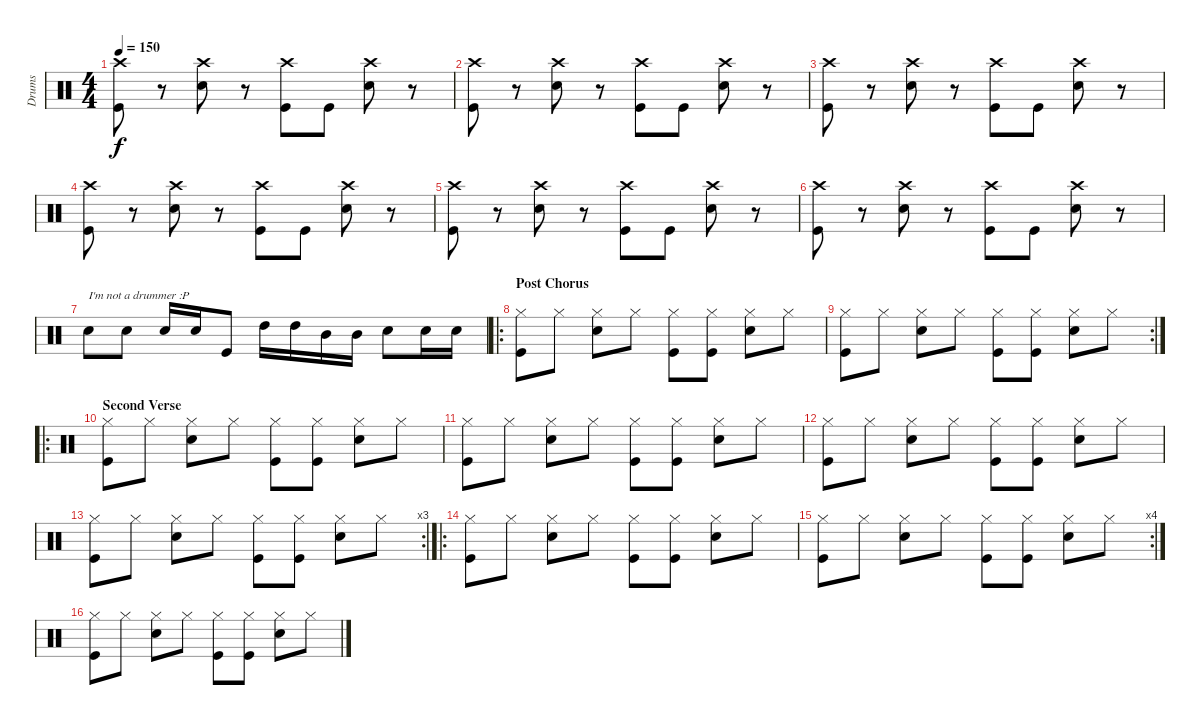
\track ("Drums" "Drums") {instrument percussion}
\staff {score}
\articulation defaults
\ts (4 4)
\tempo 150
\clef neutral
\ks c
("Crash high (hit)" "Kick (hit)").8{dy f} r.8 ("Crash high (hit)" "Snare (hit) 2").8 r.8 ("Crash high (hit)" "Kick (hit)").8 "Kick (hit)".8 ("Crash high (hit)" "Snare (hit) 2").8 r.8 |
("Crash high (hit)" "Kick (hit)").8 r.8 ("Crash high (hit)" "Snare (hit) 2").8 r.8 ("Crash high (hit)" "Kick (hit)").8 "Kick (hit)".8 ("Crash high (hit)" "Snare (hit) 2").8 r.8 |
("Crash high (hit)" "Kick (hit)").8 r.8 ("Crash high (hit)" "Snare (hit) 2").8 r.8 ("Crash high (hit)" "Kick (hit)").8 "Kick (hit)".8 ("Crash high (hit)" "Snare (hit) 2").8 r.8 |
("Crash high (hit)" "Kick (hit)").8 r.8 ("Crash high (hit)" "Snare (hit) 2").8 r.8 ("Crash high (hit)" "Kick (hit)").8 "Kick (hit)".8 ("Crash high (hit)" "Snare (hit) 2").8 r.8 |
("Crash high (hit)" "Kick (hit)").8 r.8 ("Crash high (hit)" "Snare (hit) 2").8 r.8 ("Crash high (hit)" "Kick (hit)").8 "Kick (hit)".8 ("Crash high (hit)" "Snare (hit) 2").8 r.8 |
("Crash high (hit)" "Kick (hit)").8 r.8 ("Crash high (hit)" "Snare (hit) 2").8 r.8 ("Crash high (hit)" "Kick (hit)").8 "Kick (hit)".8 ("Crash high (hit)" "Snare (hit) 2").8 r.8 |
"Snare (hit) 2".8{txt "I'm not a drummer :P"} "Snare (hit) 2".8 "Snare (hit) 2".16 "Snare (hit) 2".16 "Kick (hit)".8 "High Tom (hit)".16 "High Tom (hit)".16 "Mid Tom (hit)".16 "Mid Tom (hit)".16 "Snare (hit) 2".8 "Snare (hit) 2".16 "Snare (hit) 2".16 |
\ro
\section ("" "Post Chorus")
("Hi-Hat (closed)" "Kick (hit)").8 "Hi-Hat (closed)".8 ("Hi-Hat (closed)" "Snare (hit) 2").8 "Hi-Hat (closed)".8 ("Hi-Hat (closed)" "Kick (hit)").8 ("Hi-Hat (closed)" "Kick (hit)").8 ("Hi-Hat (closed)" "Snare (hit) 2").8 "Hi-Hat (closed)".8 |
\rc 2
("Hi-Hat (closed)" "Kick (hit)").8 "Hi-Hat (closed)".8 ("Hi-Hat (closed)" "Snare (hit) 2").8 "Hi-Hat (closed)".8 ("Hi-Hat (closed)" "Kick (hit)").8 ("Hi-Hat (closed)" "Kick (hit)").8 ("Hi-Hat (closed)" "Snare (hit) 2").8 "Hi-Hat (closed)".8 |
\ro
\section ("" "Second Verse")
("Hi-Hat (closed)" "Kick (hit)").8 "Hi-Hat (closed)".8 ("Hi-Hat (closed)" "Snare (hit) 2").8 "Hi-Hat (closed)".8 ("Hi-Hat (closed)" "Kick (hit)").8 ("Hi-Hat (closed)" "Kick (hit)").8 ("Hi-Hat (closed)" "Snare (hit) 2").8 "Hi-Hat (closed)".8 |
("Hi-Hat (closed)" "Kick (hit)").8 "Hi-Hat (closed)".8 ("Hi-Hat (closed)" "Snare (hit) 2").8 "Hi-Hat (closed)".8 ("Hi-Hat (closed)" "Kick (hit)").8 ("Hi-Hat (closed)" "Kick (hit)").8 ("Hi-Hat (closed)" "Snare (hit) 2").8 "Hi-Hat (closed)".8 |
("Hi-Hat (closed)" "Kick (hit)").8 "Hi-Hat (closed)".8 ("Hi-Hat (closed)" "Snare (hit) 2").8 "Hi-Hat (closed)".8 ("Hi-Hat (closed)" "Kick (hit)").8 ("Hi-Hat (closed)" "Kick (hit)").8 ("Hi-Hat (closed)" "Snare (hit) 2").8 "Hi-Hat (closed)".8 |
\rc 3
("Hi-Hat (closed)" "Kick (hit)").8 "Hi-Hat (closed)".8 ("Hi-Hat (closed)" "Snare (hit) 2").8 "Hi-Hat (closed)".8 ("Hi-Hat (closed)" "Kick (hit)").8 ("Hi-Hat (closed)" "Kick (hit)").8 ("Hi-Hat (closed)" "Snare (hit) 2").8 "Hi-Hat (closed)".8 |
\ro
("Hi-Hat (closed)" "Kick (hit)").8 "Hi-Hat (closed)".8 ("Hi-Hat (closed)" "Snare (hit) 2").8 "Hi-Hat (closed)".8 ("Hi-Hat (closed)" "Kick (hit)").8 ("Hi-Hat (closed)" "Kick (hit)").8 ("Hi-Hat (closed)" "Snare (hit) 2").8 "Hi-Hat (closed)".8 |
\rc 4
("Hi-Hat (closed)" "Kick (hit)").8 "Hi-Hat (closed)".8 ("Hi-Hat (closed)" "Snare (hit) 2").8 "Hi-Hat (closed)".8 ("Hi-Hat (closed)" "Kick (hit)").8 ("Hi-Hat (closed)" "Kick (hit)").8 ("Hi-Hat (closed)" "Snare (hit) 2").8 "Hi-Hat (closed)".8 |
("Hi-Hat (closed)" "Kick (hit)").8 "Hi-Hat (closed)".8 ("Hi-Hat (closed)" "Snare (hit) 2").8 "Hi-Hat (closed)".8 ("Hi-Hat (closed)" "Kick (hit)").8 ("Hi-Hat (closed)" "Kick (hit)").8 ("Hi-Hat (closed)" "Snare (hit) 2").8 "Hi-Hat (closed)".8
